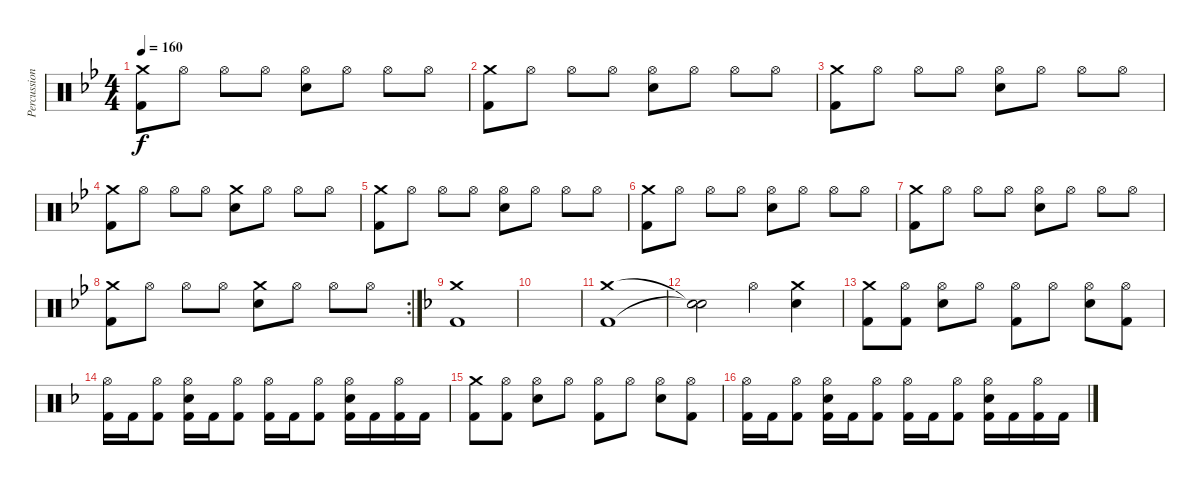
\track ("Percussions" "Percussion") {instrument percussion}
\staff {score}
\articulation defaults
\ts (4 4)
\tempo 160
\clef neutral
\ks bb
("Crash medium (hit)" "Kick (hit) 2").8{dy f} "Hi-Hat (open)".8 "Hi-Hat (open)".8 "Hi-Hat (open)".8 ("Hi-Hat (open)" "Snare (hit) 2").8 "Hi-Hat (open)".8 "Hi-Hat (open)".8 "Hi-Hat (open)".8 |
("Crash medium (hit)" "Kick (hit) 2").8 "Hi-Hat (open)".8 "Hi-Hat (open)".8 "Hi-Hat (open)".8 ("Hi-Hat (open)" "Snare (hit) 2").8 "Hi-Hat (open)".8 "Hi-Hat (open)".8 "Hi-Hat (open)".8 |
("Crash medium (hit)" "Kick (hit) 2").8 "Hi-Hat (open)".8 "Hi-Hat (open)".8 "Hi-Hat (open)".8 ("Hi-Hat (open)" "Snare (hit) 2").8 "Hi-Hat (open)".8 "Hi-Hat (open)".8 "Hi-Hat (open)".8 |
("Crash medium (hit)" "Kick (hit) 2").8 "Hi-Hat (open)".8 "Hi-Hat (open)".8 "Hi-Hat (open)".8 ("Crash medium (hit)" "Snare (hit) 2").8 "Hi-Hat (open)".8 "Hi-Hat (open)".8 "Hi-Hat (open)".8 |
("Crash medium (hit)" "Kick (hit) 2").8 "Hi-Hat (open)".8 "Hi-Hat (open)".8 "Hi-Hat (open)".8 ("Hi-Hat (open)" "Snare (hit) 2").8 "Hi-Hat (open)".8 "Hi-Hat (open)".8 "Hi-Hat (open)".8 |
("Crash medium (hit)" "Kick (hit) 2").8 "Hi-Hat (open)".8 "Hi-Hat (open)".8 "Hi-Hat (open)".8 ("Hi-Hat (open)" "Snare (hit) 2").8 "Hi-Hat (open)".8 "Hi-Hat (open)".8 "Hi-Hat (open)".8 |
("Crash medium (hit)" "Kick (hit) 2").8 "Hi-Hat (open)".8 "Hi-Hat (open)".8 "Hi-Hat (open)".8 ("Hi-Hat (open)" "Snare (hit) 2").8 "Hi-Hat (open)".8 "Hi-Hat (open)".8 "Hi-Hat (open)".8 |
\rc 2
("Crash medium (hit)" "Kick (hit) 2").8 "Hi-Hat (open)".8 "Hi-Hat (open)".8 "Hi-Hat (open)".8 ("Crash medium (hit)" "Snare (hit) 2").8 "Hi-Hat (open)".8 "Hi-Hat (open)".8 "Hi-Hat (open)".8 |
\ks f
("Crash medium (hit)" "Kick (hit) 2").1 |
|
("Crash medium (hit)" "Kick (hit) 2").1 |
("Snare (hit)"{t} "Snare (hit)"{t}).2 "Hi-Hat (open)".4 ("Crash medium (hit)" "Snare (hit) 2").4 |
("Crash medium (hit)" "Kick (hit) 2").8 ("Hi-Hat (open)" "Kick (hit) 2").8 ("Hi-Hat (open)" "Snare (hit) 2").8 "Hi-Hat (open)".8 ("Hi-Hat (open)" "Kick (hit) 2").8 "Hi-Hat (open)".8 ("Hi-Hat (open)" "Snare (hit) 2").8 ("Hi-Hat (open)" "Kick (hit) 2").8 |
("Hi-Hat (open)" "Kick (hit) 2").16 "Kick (hit) 2".16 ("Hi-Hat (open)" "Kick (hit) 2").8 ("Snare (hit) 2" "Hi-Hat (open)" "Kick (hit) 2").16 "Kick (hit) 2".16 ("Hi-Hat (open)" "Kick (hit) 2").8 ("Hi-Hat (open)" "Kick (hit) 2").16 "Kick (hit) 2".16 ("Hi-Hat (open)" "Kick (hit) 2").8 ("Snare (hit) 2" "Hi-Hat (open)" "Kick (hit) 2").16 "Kick (hit) 2".16 ("Hi-Hat (open)" "Kick (hit) 2").16 "Kick (hit) 2".16 |
("Crash medium (hit)" "Kick (hit) 2").8 ("Hi-Hat (open)" "Kick (hit) 2").8 ("Hi-Hat (open)" "Snare (hit) 2").8 "Hi-Hat (open)".8 ("Hi-Hat (open)" "Kick (hit) 2").8 "Hi-Hat (open)".8 ("Hi-Hat (open)" "Snare (hit) 2").8 ("Hi-Hat (open)" "Kick (hit) 2").8 |
("Hi-Hat (open)" "Kick (hit) 2").16 "Kick (hit) 2".16 ("Hi-Hat (open)" "Kick (hit) 2").8 ("Snare (hit) 2" "Hi-Hat (open)" "Kick (hit) 2").16 "Kick (hit) 2".16 ("Hi-Hat (open)" "Kick (hit) 2").8 ("Hi-Hat (open)" "Kick (hit) 2").16 "Kick (hit) 2".16 ("Hi-Hat (open)" "Kick (hit) 2").8 ("Snare (hit) 2" "Hi-Hat (open)" "Kick (hit) 2").16 "Kick (hit) 2".16 ("Hi-Hat (open)" "Kick (hit) 2").16 "Kick (hit) 2".16
